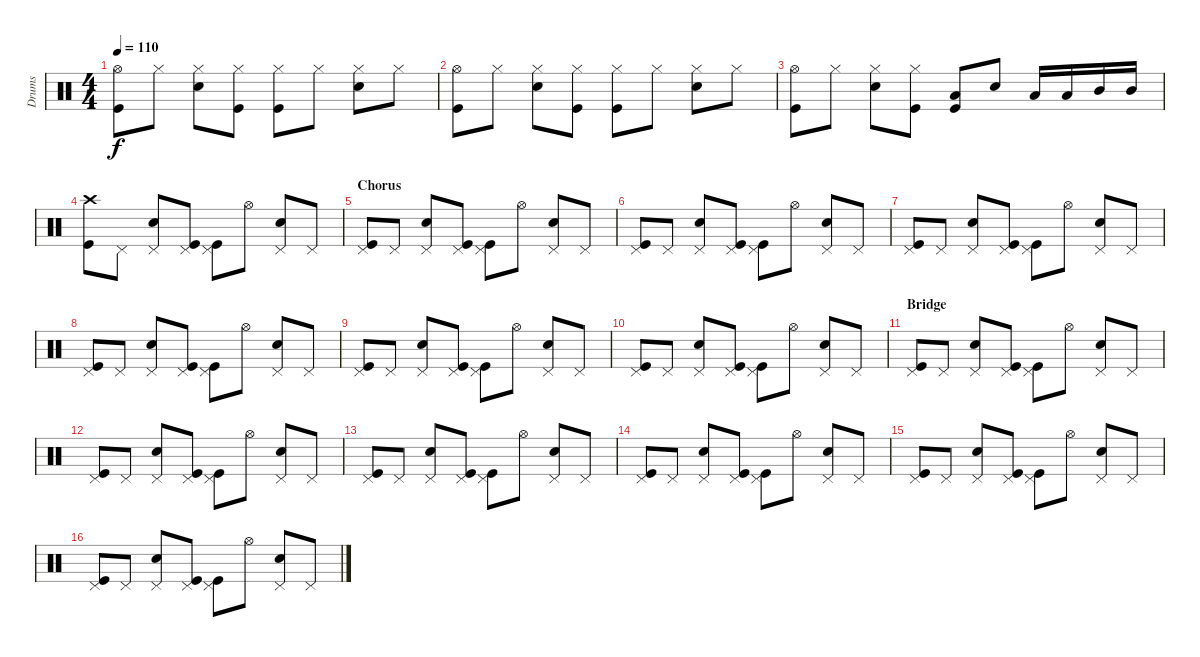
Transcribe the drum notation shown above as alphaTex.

\track ("Drums" "Drums") {instrument percussion}
\staff {score}
\articulation defaults
\ts (4 4)
\tempo 110
\clef neutral
\ks c
("Hi-Hat (open)" "Kick (hit)").8{dy f} "Hi-Hat (closed)".8 ("Hi-Hat (closed)" "Snare (hit) 2").8 ("Hi-Hat (closed)" "Kick (hit)").8 ("Hi-Hat (closed)" "Kick (hit)").8 "Hi-Hat (closed)".8 ("Hi-Hat (closed)" "Snare (hit) 2").8 "Hi-Hat (closed)".8 |
("Hi-Hat (open)" "Kick (hit)").8 "Hi-Hat (closed)".8 ("Hi-Hat (closed)" "Snare (hit) 2").8 ("Hi-Hat (closed)" "Kick (hit)").8 ("Hi-Hat (closed)" "Kick (hit)").8 "Hi-Hat (closed)".8 ("Hi-Hat (closed)" "Snare (hit) 2").8 "Hi-Hat (closed)".8 |
("Hi-Hat (open)" "Kick (hit)").8 "Hi-Hat (closed)".8 ("Hi-Hat (closed)" "Snare (hit) 2").8 ("Hi-Hat (closed)" "Kick (hit)").8 ("Low Tom (hit)" "Kick (hit)").8 "Snare (hit) 2".8 "Low Tom (hit)".16 "Low Tom (hit)".16 "Mid Tom (hit)".16 "Mid Tom (hit)".16 |
("Crash high (hit)" "Kick (hit)").8 "Pedal Hi-Hat (hit)".8 ("Pedal Hi-Hat (hit)" "Snare (hit) 2").8 ("Pedal Hi-Hat (hit)" "Kick (hit)").8 ("Pedal Hi-Hat (hit)" "Kick (hit)").8 "Hi-Hat (open)".8 ("Pedal Hi-Hat (hit)" "Snare (hit) 2").8 "Pedal Hi-Hat (hit)".8 |
\section ("" "Chorus")
("Pedal Hi-Hat (hit)" "Kick (hit)").8 "Pedal Hi-Hat (hit)".8 ("Pedal Hi-Hat (hit)" "Snare (hit) 2").8 ("Pedal Hi-Hat (hit)" "Kick (hit)").8 ("Pedal Hi-Hat (hit)" "Kick (hit)").8 "Hi-Hat (open)".8 ("Pedal Hi-Hat (hit)" "Snare (hit) 2").8 "Pedal Hi-Hat (hit)".8 |
("Pedal Hi-Hat (hit)" "Kick (hit)").8 "Pedal Hi-Hat (hit)".8 ("Pedal Hi-Hat (hit)" "Snare (hit) 2").8 ("Pedal Hi-Hat (hit)" "Kick (hit)").8 ("Pedal Hi-Hat (hit)" "Kick (hit)").8 "Hi-Hat (open)".8 ("Pedal Hi-Hat (hit)" "Snare (hit) 2").8 "Pedal Hi-Hat (hit)".8 |
("Pedal Hi-Hat (hit)" "Kick (hit)").8 "Pedal Hi-Hat (hit)".8 ("Pedal Hi-Hat (hit)" "Snare (hit) 2").8 ("Pedal Hi-Hat (hit)" "Kick (hit)").8 ("Pedal Hi-Hat (hit)" "Kick (hit)").8 "Hi-Hat (open)".8 ("Pedal Hi-Hat (hit)" "Snare (hit) 2").8 "Pedal Hi-Hat (hit)".8 |
("Pedal Hi-Hat (hit)" "Kick (hit)").8 "Pedal Hi-Hat (hit)".8 ("Pedal Hi-Hat (hit)" "Snare (hit) 2").8 ("Pedal Hi-Hat (hit)" "Kick (hit)").8 ("Pedal Hi-Hat (hit)" "Kick (hit)").8 "Hi-Hat (open)".8 ("Pedal Hi-Hat (hit)" "Snare (hit) 2").8 "Pedal Hi-Hat (hit)".8 |
("Pedal Hi-Hat (hit)" "Kick (hit)").8 "Pedal Hi-Hat (hit)".8 ("Pedal Hi-Hat (hit)" "Snare (hit) 2").8 ("Pedal Hi-Hat (hit)" "Kick (hit)").8 ("Pedal Hi-Hat (hit)" "Kick (hit)").8 "Hi-Hat (open)".8 ("Pedal Hi-Hat (hit)" "Snare (hit) 2").8 "Pedal Hi-Hat (hit)".8 |
("Pedal Hi-Hat (hit)" "Kick (hit)").8 "Pedal Hi-Hat (hit)".8 ("Pedal Hi-Hat (hit)" "Snare (hit) 2").8 ("Pedal Hi-Hat (hit)" "Kick (hit)").8 ("Pedal Hi-Hat (hit)" "Kick (hit)").8 "Hi-Hat (open)".8 ("Pedal Hi-Hat (hit)" "Snare (hit) 2").8 "Pedal Hi-Hat (hit)".8 |
\section ("" "Bridge")
("Pedal Hi-Hat (hit)" "Kick (hit)").8 "Pedal Hi-Hat (hit)".8 ("Pedal Hi-Hat (hit)" "Snare (hit) 2").8 ("Pedal Hi-Hat (hit)" "Kick (hit)").8 ("Pedal Hi-Hat (hit)" "Kick (hit)").8 "Hi-Hat (open)".8 ("Pedal Hi-Hat (hit)" "Snare (hit) 2").8 "Pedal Hi-Hat (hit)".8 |
("Pedal Hi-Hat (hit)" "Kick (hit)").8 "Pedal Hi-Hat (hit)".8 ("Pedal Hi-Hat (hit)" "Snare (hit) 2").8 ("Pedal Hi-Hat (hit)" "Kick (hit)").8 ("Pedal Hi-Hat (hit)" "Kick (hit)").8 "Hi-Hat (open)".8 ("Pedal Hi-Hat (hit)" "Snare (hit) 2").8 "Pedal Hi-Hat (hit)".8 |
("Pedal Hi-Hat (hit)" "Kick (hit)").8 "Pedal Hi-Hat (hit)".8 ("Pedal Hi-Hat (hit)" "Snare (hit) 2").8 ("Pedal Hi-Hat (hit)" "Kick (hit)").8 ("Pedal Hi-Hat (hit)" "Kick (hit)").8 "Hi-Hat (open)".8 ("Pedal Hi-Hat (hit)" "Snare (hit) 2").8 "Pedal Hi-Hat (hit)".8 |
("Pedal Hi-Hat (hit)" "Kick (hit)").8 "Pedal Hi-Hat (hit)".8 ("Pedal Hi-Hat (hit)" "Snare (hit) 2").8 ("Pedal Hi-Hat (hit)" "Kick (hit)").8 ("Pedal Hi-Hat (hit)" "Kick (hit)").8 "Hi-Hat (open)".8 ("Pedal Hi-Hat (hit)" "Snare (hit) 2").8 "Pedal Hi-Hat (hit)".8 |
("Pedal Hi-Hat (hit)" "Kick (hit)").8 "Pedal Hi-Hat (hit)".8 ("Pedal Hi-Hat (hit)" "Snare (hit) 2").8 ("Pedal Hi-Hat (hit)" "Kick (hit)").8 ("Pedal Hi-Hat (hit)" "Kick (hit)").8 "Hi-Hat (open)".8 ("Pedal Hi-Hat (hit)" "Snare (hit) 2").8 "Pedal Hi-Hat (hit)".8 |
("Pedal Hi-Hat (hit)" "Kick (hit)").8 "Pedal Hi-Hat (hit)".8 ("Pedal Hi-Hat (hit)" "Snare (hit) 2").8 ("Pedal Hi-Hat (hit)" "Kick (hit)").8 ("Pedal Hi-Hat (hit)" "Kick (hit)").8 "Hi-Hat (open)".8 ("Pedal Hi-Hat (hit)" "Snare (hit) 2").8 "Pedal Hi-Hat (hit)".8
